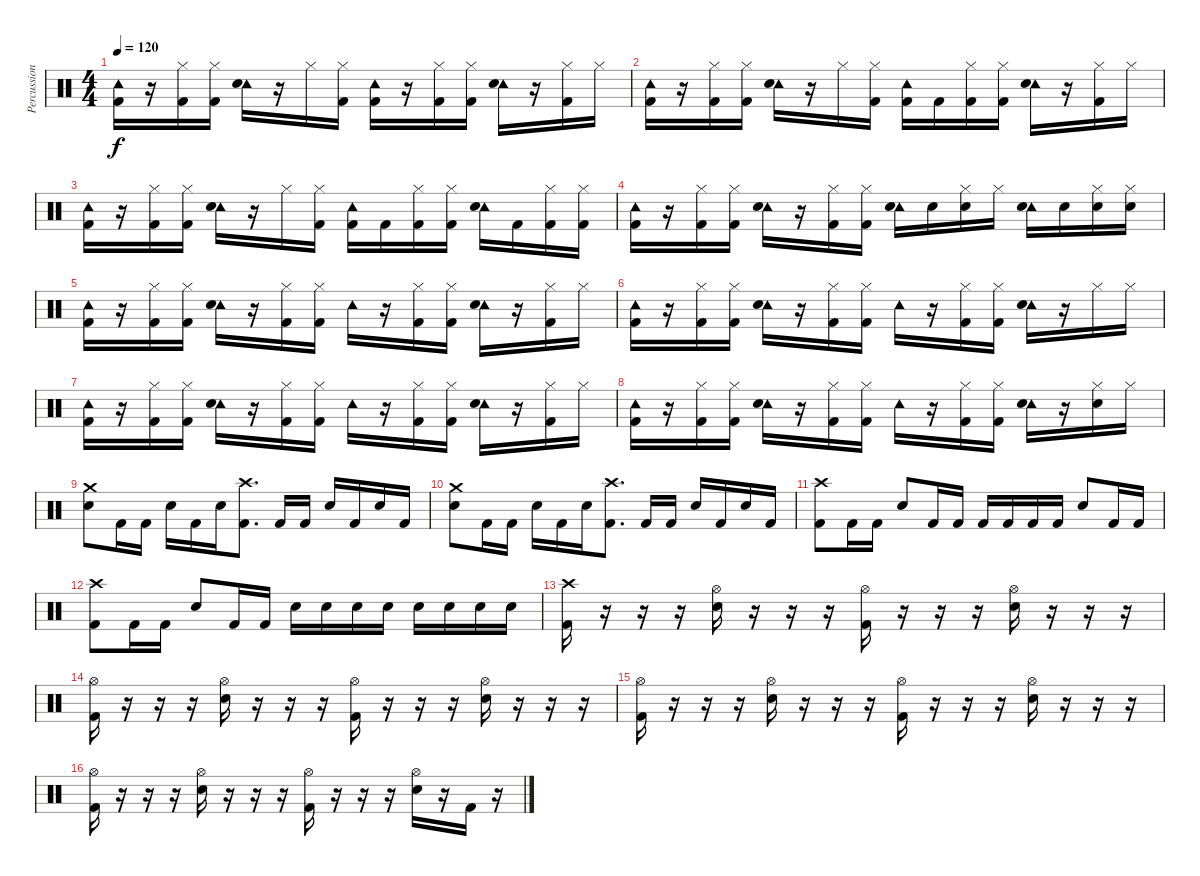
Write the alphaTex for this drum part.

\track ("Percussion" "Percussion") {instrument percussion}
\staff {score}
\articulation defaults
\ts (4 4)
\tempo 120
\clef neutral
\ks c
("Tambourine (hit)" "Kick (hit) 2").16{dy f} r.16 ("Hi-Hat (closed)" "Kick (hit) 2").16 ("Hi-Hat (closed)" "Kick (hit) 2").16 ("Tambourine (hit)" "Electric Snare (hit)").16 r.16 "Hi-Hat (closed)".16 ("Hi-Hat (closed)" "Kick (hit) 2").16 ("Tambourine (hit)" "Kick (hit) 2").16 r.16 ("Hi-Hat (closed)" "Kick (hit) 2").16 ("Hi-Hat (closed)" "Kick (hit) 2").16 ("Tambourine (hit)" "Electric Snare (hit)").16 r.16 ("Hi-Hat (closed)" "Kick (hit) 2").16 "Hi-Hat (closed)".16 |
("Tambourine (hit)" "Kick (hit) 2").16 r.16 ("Hi-Hat (closed)" "Kick (hit) 2").16 ("Hi-Hat (closed)" "Kick (hit) 2").16 ("Tambourine (hit)" "Electric Snare (hit)").16 r.16 "Hi-Hat (closed)".16 ("Hi-Hat (closed)" "Kick (hit) 2").16 ("Tambourine (hit)" "Kick (hit) 2").16 "Kick (hit) 2".16 ("Hi-Hat (closed)" "Kick (hit) 2").16 ("Hi-Hat (closed)" "Kick (hit) 2").16 ("Tambourine (hit)" "Electric Snare (hit)").16 r.16 ("Hi-Hat (closed)" "Kick (hit) 2").16 "Hi-Hat (closed)".16 |
("Tambourine (hit)" "Kick (hit) 2").16 r.16 ("Hi-Hat (closed)" "Kick (hit) 2").16 ("Hi-Hat (closed)" "Kick (hit) 2").16 ("Tambourine (hit)" "Electric Snare (hit)").16 r.16 "Hi-Hat (closed)".16 ("Hi-Hat (closed)" "Kick (hit) 2").16 ("Tambourine (hit)" "Kick (hit) 2").16 "Kick (hit) 2".16 ("Hi-Hat (closed)" "Kick (hit) 2").16 ("Hi-Hat (closed)" "Kick (hit) 2").16 ("Tambourine (hit)" "Electric Snare (hit)").16 "Kick (hit) 2".16 ("Hi-Hat (closed)" "Kick (hit) 2").16 ("Hi-Hat (closed)" "Kick (hit) 2").16 |
("Tambourine (hit)" "Kick (hit) 2").16 r.16 ("Hi-Hat (closed)" "Kick (hit) 2").16 ("Hi-Hat (closed)" "Kick (hit) 2").16 ("Tambourine (hit)" "Electric Snare (hit)").16 r.16 ("Hi-Hat (closed)" "Kick (hit) 2").16 ("Hi-Hat (closed)" "Kick (hit) 2").16 ("Tambourine (hit)" "Electric Snare (hit)").16 "Electric Snare (hit)".16 ("Hi-Hat (closed)" "Electric Snare (hit)").16 "Hi-Hat (closed)".16 ("Tambourine (hit)" "Electric Snare (hit)").16 "Electric Snare (hit)".16 ("Hi-Hat (closed)" "Electric Snare (hit)").16 ("Hi-Hat (closed)" "Electric Snare (hit)").16 |
("Tambourine (hit)" "Kick (hit) 2").16 r.16 ("Hi-Hat (closed)" "Kick (hit) 2").16 ("Hi-Hat (closed)" "Kick (hit) 2").16 ("Tambourine (hit)" "Electric Snare (hit)").16 r.16 ("Hi-Hat (closed)" "Kick (hit) 2").16 ("Hi-Hat (closed)" "Kick (hit) 2").16 "Tambourine (hit)".16 r.16 ("Hi-Hat (closed)" "Kick (hit) 2").16 ("Hi-Hat (closed)" "Kick (hit) 2").16 ("Tambourine (hit)" "Electric Snare (hit)").16 r.16 ("Hi-Hat (closed)" "Kick (hit) 2").16 "Hi-Hat (closed)".16 |
("Tambourine (hit)" "Kick (hit) 2").16 r.16 ("Hi-Hat (closed)" "Kick (hit) 2").16 ("Hi-Hat (closed)" "Kick (hit) 2").16 ("Tambourine (hit)" "Electric Snare (hit)").16 r.16 ("Hi-Hat (closed)" "Kick (hit) 2").16 ("Hi-Hat (closed)" "Kick (hit) 2").16 "Tambourine (hit)".16 r.16 ("Hi-Hat (closed)" "Kick (hit) 2").16 ("Hi-Hat (closed)" "Kick (hit) 2").16 ("Tambourine (hit)" "Electric Snare (hit)").16 r.16 "Hi-Hat (closed)".16 "Hi-Hat (closed)".16 |
("Tambourine (hit)" "Kick (hit) 2").16 r.16 ("Hi-Hat (closed)" "Kick (hit) 2").16 ("Hi-Hat (closed)" "Kick (hit) 2").16 ("Tambourine (hit)" "Electric Snare (hit)").16 r.16 ("Hi-Hat (closed)" "Kick (hit) 2").16 ("Hi-Hat (closed)" "Kick (hit) 2").16 "Tambourine (hit)".16 r.16 ("Hi-Hat (closed)" "Kick (hit) 2").16 ("Hi-Hat (closed)" "Kick (hit) 2").16 ("Tambourine (hit)" "Electric Snare (hit)").16 r.16 ("Hi-Hat (closed)" "Kick (hit) 2").16 "Hi-Hat (closed)".16 |
("Tambourine (hit)" "Kick (hit) 2").16 r.16 ("Hi-Hat (closed)" "Kick (hit) 2").16 ("Hi-Hat (closed)" "Kick (hit) 2").16 ("Tambourine (hit)" "Electric Snare (hit)").16 r.16 ("Hi-Hat (closed)" "Kick (hit) 2").16 ("Hi-Hat (closed)" "Kick (hit) 2").16 "Tambourine (hit)".16 r.16 ("Hi-Hat (closed)" "Kick (hit) 2").16 ("Hi-Hat (closed)" "Kick (hit) 2").16 ("Tambourine (hit)" "Electric Snare (hit)").16 r.16 ("Hi-Hat (closed)" "Electric Snare (hit)").16 "Hi-Hat (closed)".16 |
("Crash medium (hit)" "Electric Snare (hit)").8 "Kick (hit) 2".16 "Kick (hit) 2".16 "Electric Snare (hit)".16 "Kick (hit) 2".16 "Electric Snare (hit)".16 ("Crash high (hit)" "Kick (hit) 2").8{d} "Kick (hit) 2".16 "Kick (hit) 2".16 "Electric Snare (hit)".16 "Kick (hit) 2".16 "Electric Snare (hit)".16 "Kick (hit) 2".16 |
("Crash medium (hit)" "Electric Snare (hit)").8 "Kick (hit) 2".16 "Kick (hit) 2".16 "Electric Snare (hit)".16 "Kick (hit) 2".16 "Electric Snare (hit)".16 ("Crash high (hit)" "Kick (hit) 2").8{d} "Kick (hit) 2".16 "Kick (hit) 2".16 "Electric Snare (hit)".16 "Kick (hit) 2".16 "Electric Snare (hit)".16 "Kick (hit) 2".16 |
("Crash high (hit)" "Kick (hit) 2").8 "Kick (hit) 2".16 "Kick (hit) 2".16 "Electric Snare (hit)".8 "Kick (hit) 2".16 "Kick (hit) 2".16 "Kick (hit) 2".16 "Kick (hit) 2".16 "Kick (hit) 2".16 "Kick (hit) 2".16 "Electric Snare (hit)".8 "Kick (hit) 2".16 "Kick (hit) 2".16 |
("Crash high (hit)" "Kick (hit) 2").8 "Kick (hit) 2".16 "Kick (hit) 2".16 "Electric Snare (hit)".8 "Kick (hit) 2".16 "Kick (hit) 2".16 "Electric Snare (hit)".16 "Electric Snare (hit)".16 "Electric Snare (hit)".16 "Electric Snare (hit)".16 "Electric Snare (hit)".16 "Electric Snare (hit)".16 "Electric Snare (hit)".16 "Electric Snare (hit)".16 |
("Crash high (hit)" "Kick (hit) 2").16 r.16 r.16 r.16 ("Hi-Hat (open)" "Electric Snare (hit)").16 r.16 r.16 r.16 ("Hi-Hat (open)" "Kick (hit) 2").16 r.16 r.16 r.16 ("Hi-Hat (open)" "Electric Snare (hit)").16 r.16 r.16 r.16 |
("Hi-Hat (open)" "Kick (hit) 2").16 r.16 r.16 r.16 ("Hi-Hat (open)" "Electric Snare (hit)").16 r.16 r.16 r.16 ("Hi-Hat (open)" "Kick (hit) 2").16 r.16 r.16 r.16 ("Hi-Hat (open)" "Electric Snare (hit)").16 r.16 r.16 r.16 |
("Hi-Hat (open)" "Kick (hit) 2").16 r.16 r.16 r.16 ("Hi-Hat (open)" "Electric Snare (hit)").16 r.16 r.16 r.16 ("Hi-Hat (open)" "Kick (hit) 2").16 r.16 r.16 r.16 ("Hi-Hat (open)" "Electric Snare (hit)").16 r.16 r.16 r.16 |
("Hi-Hat (open)" "Kick (hit) 2").16 r.16 r.16 r.16 ("Hi-Hat (open)" "Electric Snare (hit)").16 r.16 r.16 r.16 ("Hi-Hat (open)" "Kick (hit) 2").16 r.16 r.16 r.16 ("Hi-Hat (open)" "Electric Snare (hit)").16 r.16 "Kick (hit) 2".16 r.16
